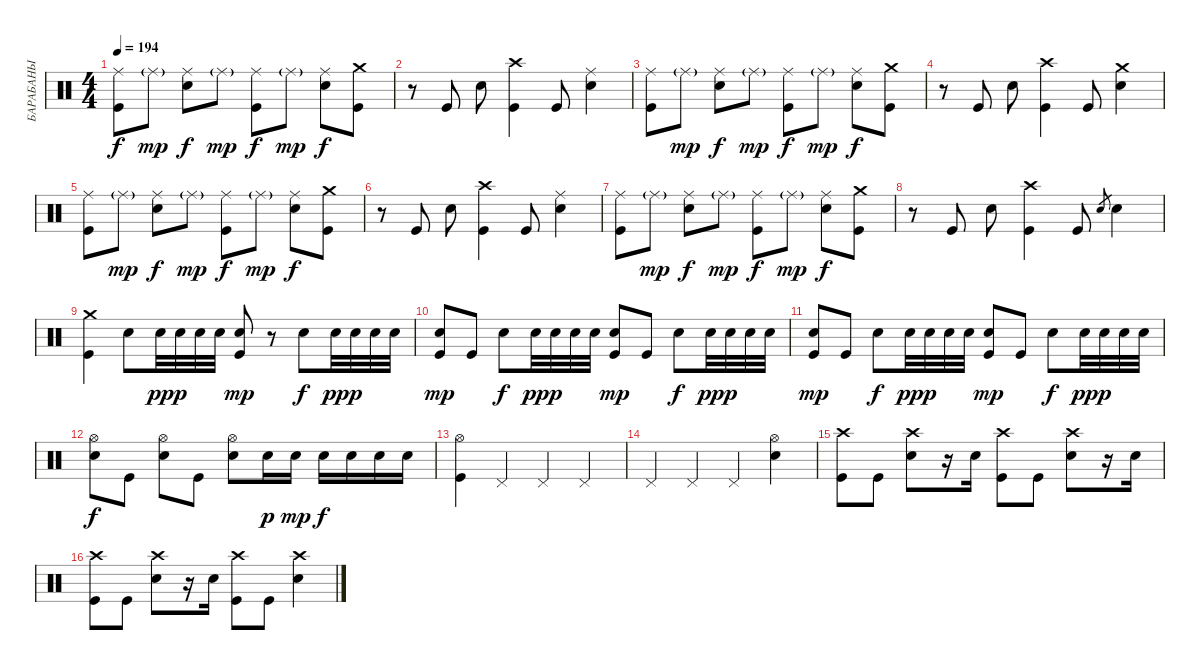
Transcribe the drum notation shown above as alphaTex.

\track ("БАРАБАНЫ" "БАРАБАНЫ") {instrument percussion}
\staff {score}
\articulation defaults
\ts (4 4)
\tempo 194
\clef neutral
\ks c
("Ride (middle)" "Kick (hit)").8{dy f} "Ride (middle)"{g}.8{dy mp} ("Ride (middle)" "Electric Snare (hit)").8{dy f} "Ride (middle)"{g}.8{dy mp} ("Ride (middle)" "Kick (hit)").8{dy f} "Ride (middle)"{g}.8{dy mp} ("Ride (middle)" "Electric Snare (hit)").8{dy f} ("Crash medium (hit)" "Kick (hit)").8 |
r.8 "Kick (hit)".8 "Electric Snare (hit)".8 ("Crash high (hit)" "Kick (hit)").4 "Kick (hit)".8 ("Ride (middle)" "Electric Snare (hit)").4 |
("Ride (middle)" "Kick (hit)").8 "Ride (middle)"{g}.8{dy mp} ("Ride (middle)" "Electric Snare (hit)").8{dy f} "Ride (middle)"{g}.8{dy mp} ("Ride (middle)" "Kick (hit)").8{dy f} "Ride (middle)"{g}.8{dy mp} ("Ride (middle)" "Electric Snare (hit)").8{dy f} ("Crash medium (hit)" "Kick (hit)").8 |
r.8 "Kick (hit)".8 "Electric Snare (hit)".8 ("Crash high (hit)" "Kick (hit)").4 "Kick (hit)".8 ("Crash medium (hit)" "Electric Snare (hit)").4 |
("Ride (middle)" "Kick (hit)").8 "Ride (middle)"{g}.8{dy mp} ("Ride (middle)" "Electric Snare (hit)").8{dy f} "Ride (middle)"{g}.8{dy mp} ("Ride (middle)" "Kick (hit)").8{dy f} "Ride (middle)"{g}.8{dy mp} ("Ride (middle)" "Electric Snare (hit)").8{dy f} ("Crash medium (hit)" "Kick (hit)").8 |
r.8 "Kick (hit)".8 "Electric Snare (hit)".8 ("Crash high (hit)" "Kick (hit)").4 "Kick (hit)".8 ("Ride (middle)" "Electric Snare (hit)").4 |
("Ride (middle)" "Kick (hit)").8 "Ride (middle)"{g}.8{dy mp} ("Ride (middle)" "Electric Snare (hit)").8{dy f} "Ride (middle)"{g}.8{dy mp} ("Ride (middle)" "Kick (hit)").8{dy f} "Ride (middle)"{g}.8{dy mp} ("Ride (middle)" "Electric Snare (hit)").8{dy f} ("Crash medium (hit)" "Kick (hit)").8 |
r.8 "Kick (hit)".8 "Electric Snare (hit)".8 ("Crash high (hit)" "Kick (hit)").4 "Kick (hit)".8 "Electric Snare (hit)".8{gr} "Electric Snare (hit)".4 |
("Crash medium (hit)" "Kick (hit)").4 "Electric Snare (hit)".8 "Electric Snare (hit)".32{dy pp} "Electric Snare (hit)".32{dy p} "Electric Snare (hit)".32 "Electric Snare (hit)".32 ("Electric Snare (hit)" "Kick (hit)").8{dy mp} r.8 "Electric Snare (hit)".8{dy f} "Electric Snare (hit)".32{dy pp} "Electric Snare (hit)".32{dy p} "Electric Snare (hit)".32 "Electric Snare (hit)".32 |
("Electric Snare (hit)" "Kick (hit)").8{dy mp} "Kick (hit)".8 "Electric Snare (hit)".8{dy f} "Electric Snare (hit)".32{dy pp} "Electric Snare (hit)".32{dy p} "Electric Snare (hit)".32 "Electric Snare (hit)".32 ("Electric Snare (hit)" "Kick (hit)").8{dy mp} "Kick (hit)".8 "Electric Snare (hit)".8{dy f} "Electric Snare (hit)".32{dy pp} "Electric Snare (hit)".32{dy p} "Electric Snare (hit)".32 "Electric Snare (hit)".32 |
("Electric Snare (hit)" "Kick (hit)").8{dy mp} "Kick (hit)".8 "Electric Snare (hit)".8{dy f} "Electric Snare (hit)".32{dy pp} "Electric Snare (hit)".32{dy p} "Electric Snare (hit)".32 "Electric Snare (hit)".32 ("Electric Snare (hit)" "Kick (hit)").8{dy mp} "Kick (hit)".8 "Electric Snare (hit)".8{dy f} "Electric Snare (hit)".32{dy pp} "Electric Snare (hit)".32{dy p} "Electric Snare (hit)".32 "Electric Snare (hit)".32 |
("Hi-Hat (open)" "Electric Snare (hit)").8{dy f} "Kick (hit)".8 ("Hi-Hat (open)" "Electric Snare (hit)").8 "Kick (hit)".8 ("Hi-Hat (open)" "Electric Snare (hit)").8 "Electric Snare (hit)".16{dy p} "Electric Snare (hit)".16{dy mp} "Electric Snare (hit)".16{dy f} "Electric Snare (hit)".16 "Electric Snare (hit)".16 "Electric Snare (hit)".16 |
("Hi-Hat (open)" "Kick (hit)").4 "Pedal Hi-Hat (hit)".4 "Pedal Hi-Hat (hit)".4 "Pedal Hi-Hat (hit)".4 |
"Pedal Hi-Hat (hit)".4 "Pedal Hi-Hat (hit)".4 "Pedal Hi-Hat (hit)".4 ("Hi-Hat (open)" "Electric Snare (hit)").4 |
("Crash high (hit)" "Kick (hit)").8 "Kick (hit)".8 ("Crash high (hit)" "Electric Snare (hit)").8 r.16 "Electric Snare (hit)".16 ("Crash high (hit)" "Kick (hit)").8 "Kick (hit)".8 ("Crash high (hit)" "Electric Snare (hit)").8 r.16 "Electric Snare (hit)".16 |
("Crash high (hit)" "Kick (hit)").8 "Kick (hit)".8 ("Crash high (hit)" "Electric Snare (hit)").8 r.16 "Electric Snare (hit)".16 ("Crash high (hit)" "Kick (hit)").8 "Kick (hit)".8 ("Crash high (hit)" "Electric Snare (hit)").4
